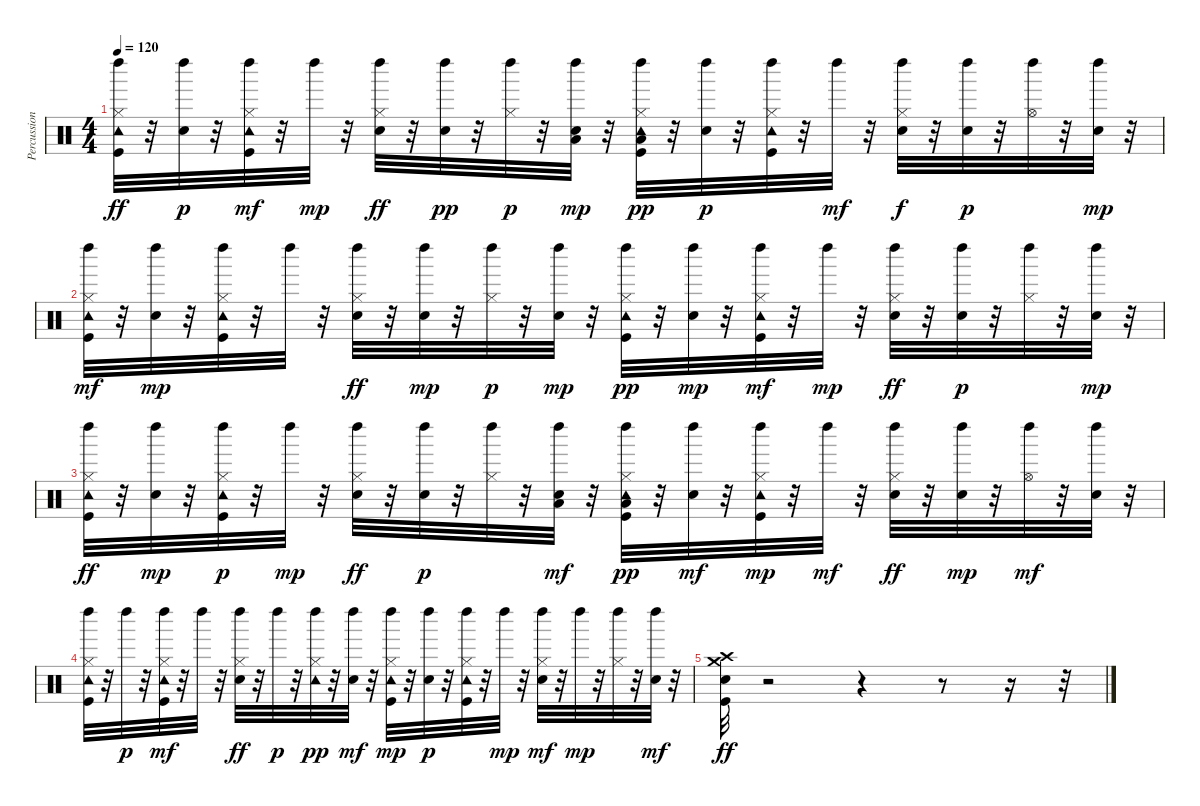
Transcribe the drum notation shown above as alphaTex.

\track ("Percussioni" "Percussion") {instrument percussion}
\staff {score}
\articulation defaults
\ts (4 4)
\tempo 120
\clef neutral
\ks c
("Tambourine (hit)" "Left Maraca (hit)" "Hi-Hat (closed)" "Kick (hit)").32{dy ff} r.32 ("Electric Snare (hit)" "Left Maraca (hit)").32{dy p} r.32 ("Tambourine (hit)" "Left Maraca (hit)" "Hi-Hat (closed)" "Kick (hit)").32{dy mf} r.32 "Left Maraca (hit)".32{dy mp} r.32 ("Electric Snare (hit)" "Hi-Hat (closed)" "Left Maraca (hit)").32{dy ff} r.32 ("Left Maraca (hit)" "Electric Snare (hit)").32{dy pp} r.32 ("Hi-Hat (closed)" "Left Maraca (hit)").32{dy p} r.32 ("Electric Snare (hit)" "Low Tom (hit)" "Left Maraca (hit)").32{dy mp} r.32 ("Tambourine (hit)" "Low Floor Tom (hit)" "Hi-Hat (closed)" "Kick (hit)" "Left Maraca (hit)").32{dy pp} r.32 ("Electric Snare (hit)" "Left Maraca (hit)").32{dy p} r.32 ("Kick (hit)" "Hi-Hat (closed)" "Tambourine (hit)" "Left Maraca (hit)").32 r.32 "Left Maraca (hit)".32{dy mf} r.32 ("Electric Snare (hit)" "Hi-Hat (closed)" "Left Maraca (hit)").32{dy f} r.32 ("Electric Snare (hit)" "Left Maraca (hit)").32{dy p} r.32 ("Hi-Hat (open)" "Left Maraca (hit)").32 r.32 ("Electric Snare (hit)" "Left Maraca (hit)").32{dy mp} r.32 |
("Tambourine (hit)" "Hi-Hat (closed)" "Kick (hit)" "Left Maraca (hit)").32{dy mf} r.32 ("Electric Snare (hit)" "Left Maraca (hit)").32{dy mp} r.32 ("Tambourine (hit)" "Hi-Hat (closed)" "Kick (hit)" "Left Maraca (hit)").32 r.32 "Left Maraca (hit)".32 r.32 ("Hi-Hat (closed)" "Electric Snare (hit)" "Left Maraca (hit)").32{dy ff} r.32 ("Left Maraca (hit)" "Electric Snare (hit)").32{dy mp} r.32 ("Hi-Hat (closed)" "Left Maraca (hit)").32{dy p} r.32 ("Electric Snare (hit)" "Left Maraca (hit)").32{dy mp} r.32 ("Tambourine (hit)" "Left Maraca (hit)" "Hi-Hat (closed)" "Kick (hit)").32{dy pp} r.32 ("Left Maraca (hit)" "Electric Snare (hit)").32{dy mp} r.32 ("Tambourine (hit)" "Left Maraca (hit)" "Hi-Hat (closed)" "Kick (hit)").32{dy mf} r.32 "Left Maraca (hit)".32{dy mp} r.32 ("Hi-Hat (closed)" "Electric Snare (hit)" "Left Maraca (hit)").32{dy ff} r.32 ("Electric Snare (hit)" "Left Maraca (hit)").32{dy p} r.32 ("Hi-Hat (closed)" "Left Maraca (hit)").32 r.32 ("Electric Snare (hit)" "Left Maraca (hit)").32{dy mp} r.32 |
("Tambourine (hit)" "Left Maraca (hit)" "Hi-Hat (closed)" "Kick (hit)").32{dy ff} r.32 ("Electric Snare (hit)" "Left Maraca (hit)").32{dy mp} r.32 ("Tambourine (hit)" "Hi-Hat (closed)" "Kick (hit)" "Left Maraca (hit)").32{dy p} r.32 "Left Maraca (hit)".32{dy mp} r.32 ("Hi-Hat (closed)" "Electric Snare (hit)" "Left Maraca (hit)").32{dy ff} r.32 ("Electric Snare (hit)" "Left Maraca (hit)").32{dy p} r.32 ("Hi-Hat (closed)" "Left Maraca (hit)").32 r.32 ("Electric Snare (hit)" "Low Tom (hit)" "Left Maraca (hit)").32{dy mf} r.32 ("Low Floor Tom (hit)" "Hi-Hat (closed)" "Kick (hit)" "Tambourine (hit)" "Left Maraca (hit)").32{dy pp} r.32 ("Left Maraca (hit)" "Electric Snare (hit)").32{dy mf} r.32 ("Tambourine (hit)" "Hi-Hat (closed)" "Kick (hit)" "Left Maraca (hit)").32{dy mp} r.32 "Left Maraca (hit)".32{dy mf} r.32 ("Electric Snare (hit)" "Hi-Hat (closed)" "Left Maraca (hit)").32{dy ff} r.32 ("Electric Snare (hit)" "Left Maraca (hit)").32{dy mp} r.32 ("Hi-Hat (open)" "Left Maraca (hit)").32{dy mf} r.32 ("Electric Snare (hit)" "Left Maraca (hit)").32 r.32 |
("Kick (hit)" "Tambourine (hit)" "Left Maraca (hit)" "Hi-Hat (closed)").32 r.32 "Left Maraca (hit)".32{dy p} r.32 ("Kick (hit)" "Tambourine (hit)" "Left Maraca (hit)" "Hi-Hat (closed)").32{dy mf} r.32 "Left Maraca (hit)".32 r.32 ("Left Maraca (hit)" "Hi-Hat (closed)" "Electric Snare (hit)").32{dy ff} r.32 "Left Maraca (hit)".32{dy p} r.32 ("Tambourine (hit)" "Hi-Hat (closed)" "Left Maraca (hit)").32{dy pp} r.32 ("Left Maraca (hit)" "Electric Snare (hit)").32{dy mf} r.32 ("Hi-Hat (closed)" "Tambourine (hit)" "Kick (hit)" "Left Maraca (hit)").32{dy mp} r.32 ("Electric Snare (hit)" "Left Maraca (hit)").32{dy p} r.32 ("Hi-Hat (closed)" "Kick (hit)" "Tambourine (hit)" "Left Maraca (hit)").32 r.32 "Left Maraca (hit)".32{dy mp} r.32 ("Electric Snare (hit)" "Hi-Hat (closed)" "Left Maraca (hit)").32{dy mf} r.32 "Left Maraca (hit)".32{dy mp} r.32 ("Left Maraca (hit)" "Hi-Hat (closed)").32 r.32 ("Electric Snare (hit)" "Left Maraca (hit)").32{dy mf} r.32 |
("Crash high (hit)" "Crash medium (hit)" "Electric Snare (hit)" "Kick (hit)").32{dy ff} r.2 r.4 r.8 r.16 r.32
